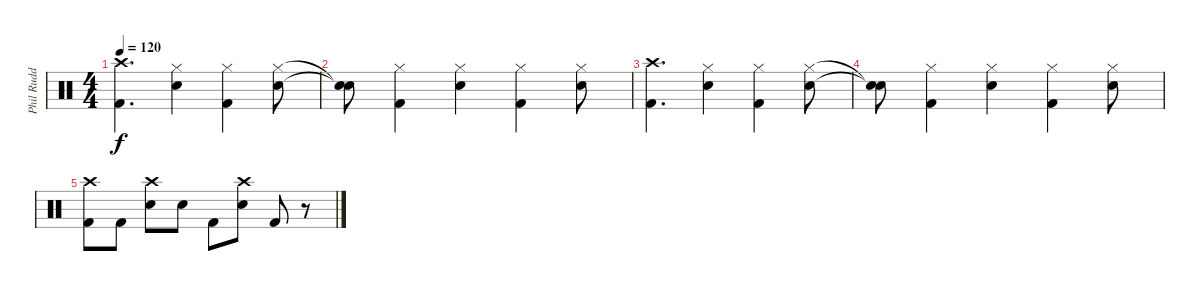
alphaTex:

\track ("Phil Rudd - Drums" "Phil Rudd ") {instrument percussion}
\staff {score}
\articulation defaults
\ts (4 4)
\tempo 120
\clef neutral
\ks c
("Crash high (hit)" "Kick (hit) 2").4{d dy f} ("Hi-Hat (closed)" "Snare (hit) 2").4 ("Hi-Hat (closed)" "Kick (hit) 2").4 ("Hi-Hat (closed)" "Snare (hit) 2").8 |
("Snare (hit)"{t} "Snare (hit)"{t}).8 ("Hi-Hat (closed)" "Kick (hit) 2").4 ("Hi-Hat (closed)" "Snare (hit) 2").4 ("Hi-Hat (closed)" "Kick (hit) 2").4 ("Hi-Hat (closed)" "Snare (hit) 2").8 |
("Crash high (hit)" "Kick (hit) 2").4{d} ("Hi-Hat (closed)" "Snare (hit) 2").4 ("Hi-Hat (closed)" "Kick (hit) 2").4 ("Hi-Hat (closed)" "Snare (hit) 2").8 |
("Snare (hit)"{t} "Snare (hit)"{t}).8 ("Hi-Hat (closed)" "Kick (hit) 2").4 ("Hi-Hat (closed)" "Snare (hit) 2").4 ("Hi-Hat (closed)" "Kick (hit) 2").4 ("Hi-Hat (closed)" "Snare (hit) 2").8 |
("Crash high (hit)" "Kick (hit) 2").8 "Kick (hit) 2".8 ("Crash high (hit)" "Snare (hit) 2").8 "Snare (hit) 2".8 "Kick (hit) 2".8 ("Crash high (hit)" "Snare (hit) 2").8 "Kick (hit) 2".8 r.8
